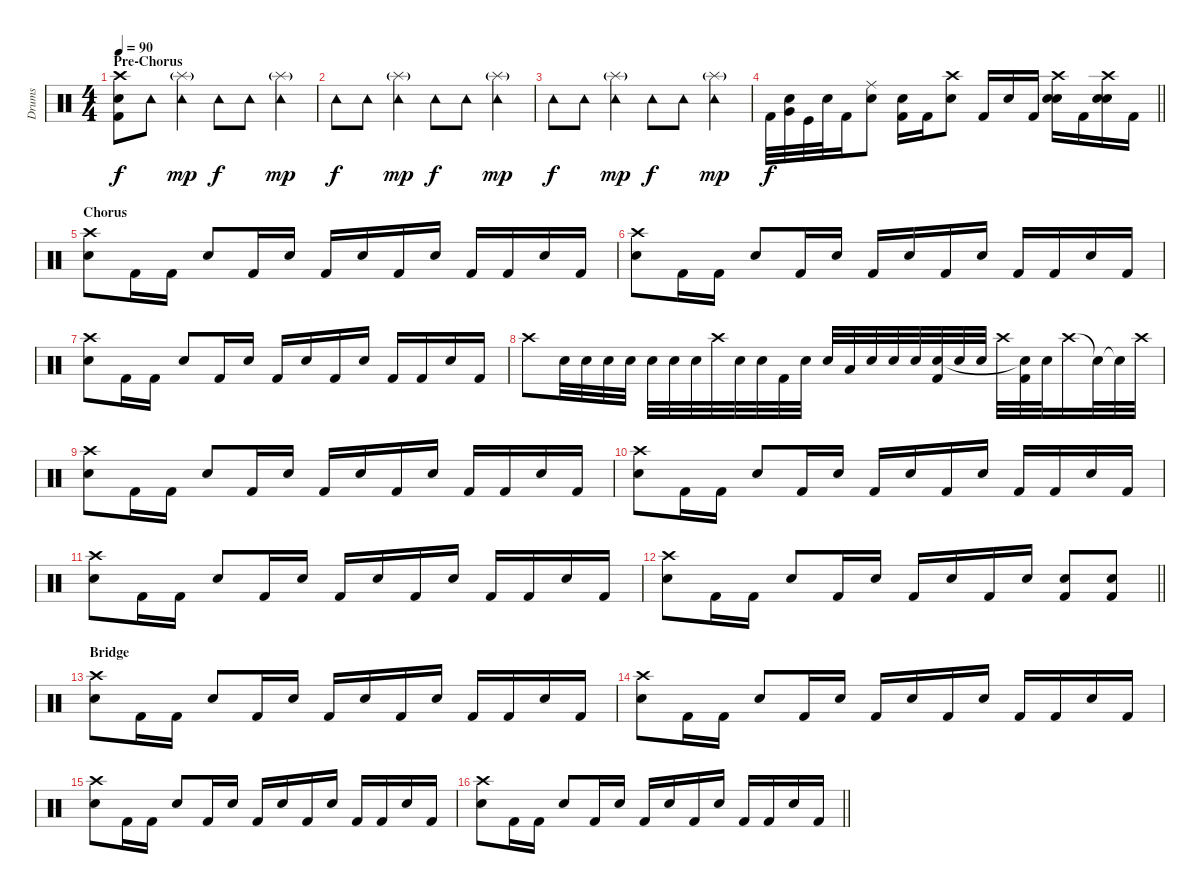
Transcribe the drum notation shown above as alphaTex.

\track ("Drums" "Drums") {instrument percussion}
\staff {score}
\articulation defaults
\ts (4 4)
\section ("" "Pre-Chorus")
\tempo 90
\clef neutral
\ks c
("Kick (hit) 2" "Electric Snare (hit)" "Crash high (hit)").8{dy f} "Tambourine (hit)".8 ("Tambourine (hit)" "Splash (hit)"{g}).4{dy mp} "Tambourine (hit)".8{dy f} "Tambourine (hit)".8 ("Tambourine (hit)" "Splash (hit)"{g}).4{dy mp} |
"Tambourine (hit)".8{dy f} "Tambourine (hit)".8 ("Tambourine (hit)" "Splash (hit)"{g}).4{dy mp} "Tambourine (hit)".8{dy f} "Tambourine (hit)".8 ("Tambourine (hit)" "Splash (hit)"{g}).4{dy mp} |
"Tambourine (hit)".8{dy f} "Tambourine (hit)".8 ("Tambourine (hit)" "Splash (hit)"{g}).4{dy mp} "Tambourine (hit)".8{dy f} "Tambourine (hit)".8 ("Tambourine (hit)" "Splash (hit)"{g}).4{dy mp} |
\barLineRight lightlight "Kick (hit) 2".32{dy f}
("Snare (hit) 2" "Very Low Tom (hit)").32 "Kick (hit)".32 "Snare (hit) 2".32 "Kick (hit) 2".16 ("Snare (hit) 2" "Ride (middle)").8 ("Kick (hit) 2" "Snare (hit) 2").16 "Kick (hit) 2".16 ("Electric Snare (hit)" "Crash high (hit)").8 "Kick (hit) 2".16 "Snare (hit) 2".16 "Kick (hit) 2".16 ("Snare (hit) 2" "Snare (hit) 2" "Crash high (hit)").16 "Kick (hit) 2".16 ("Snare (hit) 2" "Snare (hit) 2" "Crash high (hit)").16 "Kick (hit) 2".16 |
\section ("" "Chorus")
("Electric Snare (hit)" "Crash high (hit)").8 "Kick (hit) 2".16 "Kick (hit) 2".16 "Electric Snare (hit)".8 "Kick (hit) 2".16 "Electric Snare (hit)".16 "Kick (hit) 2".16 "Electric Snare (hit)".16 "Kick (hit) 2".16 "Electric Snare (hit)".16 "Kick (hit) 2".16 "Kick (hit) 2".16 "Electric Snare (hit)".16 "Kick (hit) 2".16 |
("Electric Snare (hit)" "Crash high (hit)").8 "Kick (hit) 2".16 "Kick (hit) 2".16 "Electric Snare (hit)".8 "Kick (hit) 2".16 "Electric Snare (hit)".16 "Kick (hit) 2".16 "Electric Snare (hit)".16 "Kick (hit) 2".16 "Electric Snare (hit)".16 "Kick (hit) 2".16 "Kick (hit) 2".16 "Electric Snare (hit)".16 "Kick (hit) 2".16 |
("Electric Snare (hit)" "Crash high (hit)").8 "Kick (hit) 2".16 "Kick (hit) 2".16 "Electric Snare (hit)".8 "Kick (hit) 2".16 "Electric Snare (hit)".16 "Kick (hit) 2".16 "Electric Snare (hit)".16 "Kick (hit) 2".16 "Electric Snare (hit)".16 "Kick (hit) 2".16 "Kick (hit) 2".16 "Electric Snare (hit)".16 "Kick (hit) 2".16 |
"Crash high (hit)".8 "Snare (hit) 2".32 "Snare (hit) 2".32 "Snare (hit) 2".32 "Snare (hit) 2".32 "Snare (hit) 2".32 "Snare (hit) 2".32 "Snare (hit) 2".32 "Crash high (hit)".32 "Snare (hit) 2".32 "Snare (hit) 2".32 "Kick (hit) 2".32 "Snare (hit) 2".32 "Snare (hit) 2".32 "Low Floor Tom (hit)".32 "Snare (hit) 2".32 "Snare (hit) 2".32 "Snare (hit) 2".32 ("Kick (hit) 2" "Snare (hit) 2").32 "Snare (hit) 2".32 "Snare (hit) 2".32 "Crash high (hit)".32 ("Kick (hit) 2" "Snare (hit) 2"{t}).32 "Snare (hit) 2".32 "Crash high (hit)".16 "Snare (hit)"{t}.32 "Snare (hit)"{t}.32 "Crash high (hit)".32 |
("Electric Snare (hit)" "Crash high (hit)").8 "Kick (hit) 2".16 "Kick (hit) 2".16 "Electric Snare (hit)".8 "Kick (hit) 2".16 "Electric Snare (hit)".16 "Kick (hit) 2".16 "Electric Snare (hit)".16 "Kick (hit) 2".16 "Electric Snare (hit)".16 "Kick (hit) 2".16 "Kick (hit) 2".16 "Electric Snare (hit)".16 "Kick (hit) 2".16 |
("Electric Snare (hit)" "Crash high (hit)").8 "Kick (hit) 2".16 "Kick (hit) 2".16 "Electric Snare (hit)".8 "Kick (hit) 2".16 "Electric Snare (hit)".16 "Kick (hit) 2".16 "Electric Snare (hit)".16 "Kick (hit) 2".16 "Electric Snare (hit)".16 "Kick (hit) 2".16 "Kick (hit) 2".16 "Electric Snare (hit)".16 "Kick (hit) 2".16 |
("Electric Snare (hit)" "Crash high (hit)").8 "Kick (hit) 2".16 "Kick (hit) 2".16 "Electric Snare (hit)".8 "Kick (hit) 2".16 "Electric Snare (hit)".16 "Kick (hit) 2".16 "Electric Snare (hit)".16 "Kick (hit) 2".16 "Electric Snare (hit)".16 "Kick (hit) 2".16 "Kick (hit) 2".16 "Electric Snare (hit)".16 "Kick (hit) 2".16 |
\barLineRight lightlight
("Electric Snare (hit)" "Crash high (hit)").8 "Kick (hit) 2".16 "Kick (hit) 2".16 "Electric Snare (hit)".8 "Kick (hit) 2".16 "Electric Snare (hit)".16 "Kick (hit) 2".16 "Electric Snare (hit)".16 "Kick (hit) 2".16 "Electric Snare (hit)".16 ("Kick (hit) 2" "Electric Snare (hit)").8 ("Kick (hit) 2" "Electric Snare (hit)").8 |
\section ("" "Bridge")
("Electric Snare (hit)" "Crash high (hit)").8 "Kick (hit) 2".16 "Kick (hit) 2".16 "Electric Snare (hit)".8 "Kick (hit) 2".16 "Electric Snare (hit)".16 "Kick (hit) 2".16 "Electric Snare (hit)".16 "Kick (hit) 2".16 "Electric Snare (hit)".16 "Kick (hit) 2".16 "Kick (hit) 2".16 "Electric Snare (hit)".16 "Kick (hit) 2".16 |
("Electric Snare (hit)" "Crash high (hit)").8 "Kick (hit) 2".16 "Kick (hit) 2".16 "Electric Snare (hit)".8 "Kick (hit) 2".16 "Electric Snare (hit)".16 "Kick (hit) 2".16 "Electric Snare (hit)".16 "Kick (hit) 2".16 "Electric Snare (hit)".16 "Kick (hit) 2".16 "Kick (hit) 2".16 "Electric Snare (hit)".16 "Kick (hit) 2".16 |
("Electric Snare (hit)" "Crash high (hit)").8 "Kick (hit) 2".16 "Kick (hit) 2".16 "Electric Snare (hit)".8 "Kick (hit) 2".16 "Electric Snare (hit)".16 "Kick (hit) 2".16 "Electric Snare (hit)".16 "Kick (hit) 2".16 "Electric Snare (hit)".16 "Kick (hit) 2".16 "Kick (hit) 2".16 "Electric Snare (hit)".16 "Kick (hit) 2".16 |
\barLineRight lightlight
("Electric Snare (hit)" "Crash high (hit)").8 "Kick (hit) 2".16 "Kick (hit) 2".16 "Electric Snare (hit)".8 "Kick (hit) 2".16 "Electric Snare (hit)".16 "Kick (hit) 2".16 "Electric Snare (hit)".16 "Kick (hit) 2".16 "Electric Snare (hit)".16 "Kick (hit) 2".16 "Kick (hit) 2".16 "Electric Snare (hit)".16 "Kick (hit) 2".16
